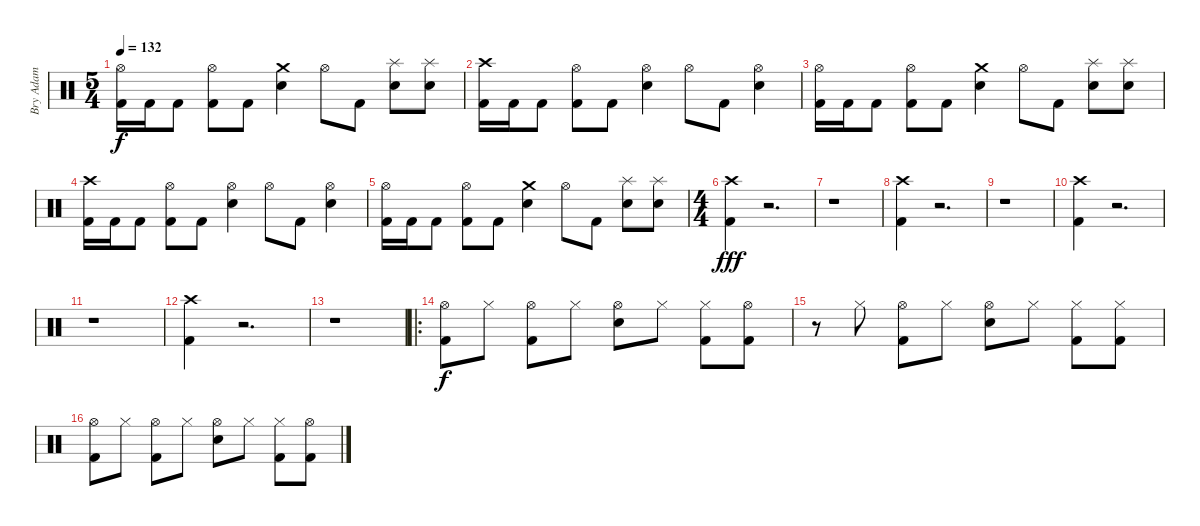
\track ("Bry Adam" "Bry Adam") {instrument percussion}
\staff {score}
\articulation defaults
\ts (5 4)
\tempo 132
\clef neutral
\ks c
("Hi-Hat (open)" "Kick (hit) 2").16{dy f} "Kick (hit) 2".16 "Kick (hit) 2".8 ("Hi-Hat (open)" "Kick (hit) 2").8 "Kick (hit) 2".8 ("Crash medium (hit)" "Snare (hit) 2").4 "Hi-Hat (open)".8 "Kick (hit) 2".8 ("Splash (hit)" "Snare (hit) 2").8 ("Splash (hit)" "Snare (hit) 2").8 |
("Crash high (hit)" "Kick (hit) 2").16 "Kick (hit) 2".16 "Kick (hit) 2".8 ("Hi-Hat (open)" "Kick (hit) 2").8 "Kick (hit) 2".8 ("Hi-Hat (open)" "Snare (hit) 2").4 "Hi-Hat (open)".8 "Kick (hit) 2".8 ("Hi-Hat (open)" "Snare (hit) 2").4 |
("Hi-Hat (open)" "Kick (hit) 2").16 "Kick (hit) 2".16 "Kick (hit) 2".8 ("Hi-Hat (open)" "Kick (hit) 2").8 "Kick (hit) 2".8 ("Crash medium (hit)" "Snare (hit) 2").4 "Hi-Hat (open)".8 "Kick (hit) 2".8 ("Splash (hit)" "Snare (hit) 2").8 ("Splash (hit)" "Snare (hit) 2").8 |
("Crash high (hit)" "Kick (hit) 2").16 "Kick (hit) 2".16 "Kick (hit) 2".8 ("Hi-Hat (open)" "Kick (hit) 2").8 "Kick (hit) 2".8 ("Hi-Hat (open)" "Snare (hit) 2").4 "Hi-Hat (open)".8 "Kick (hit) 2".8 ("Hi-Hat (open)" "Snare (hit) 2").4 |
("Hi-Hat (open)" "Kick (hit) 2").16 "Kick (hit) 2".16 "Kick (hit) 2".8 ("Hi-Hat (open)" "Kick (hit) 2").8 "Kick (hit) 2".8 ("Crash medium (hit)" "Snare (hit) 2").4 "Hi-Hat (open)".8 "Kick (hit) 2".8 ("Splash (hit)" "Snare (hit) 2").8 ("Splash (hit)" "Snare (hit) 2").8 |
\ts (4 4)
("Crash high (hit)" "Kick (hit) 2").4{dy fff} r.2{d} |
r.1 |
("Crash high (hit)" "Kick (hit) 2").4 r.2{d} |
r.1 |
("Crash high (hit)" "Kick (hit) 2").4 r.2{d} |
r.1 |
("Crash high (hit)" "Kick (hit) 2").4 r.2{d} |
r.1 |
\ro
("Hi-Hat (open)" "Kick (hit) 2").8{dy f} "Hi-Hat (closed)".8 ("Hi-Hat (open)" "Kick (hit) 2").8 "Hi-Hat (closed)".8 ("Hi-Hat (open)" "Snare (hit) 2").8 "Hi-Hat (closed)".8 ("Hi-Hat (closed)" "Kick (hit) 2").8 ("Hi-Hat (open)" "Kick (hit) 2").8 |
r.8 "Hi-Hat (closed)".8 ("Hi-Hat (open)" "Kick (hit) 2").8 "Hi-Hat (closed)".8 ("Hi-Hat (open)" "Snare (hit) 2").8 "Hi-Hat (closed)".8 ("Hi-Hat (closed)" "Kick (hit) 2").8 ("Hi-Hat (closed)" "Kick (hit) 2").8 |
("Hi-Hat (open)" "Kick (hit) 2").8 "Hi-Hat (closed)".8 ("Hi-Hat (open)" "Kick (hit) 2").8 "Hi-Hat (closed)".8 ("Hi-Hat (open)" "Snare (hit) 2").8 "Hi-Hat (closed)".8 ("Hi-Hat (closed)" "Kick (hit) 2").8 ("Hi-Hat (open)" "Kick (hit) 2").8
